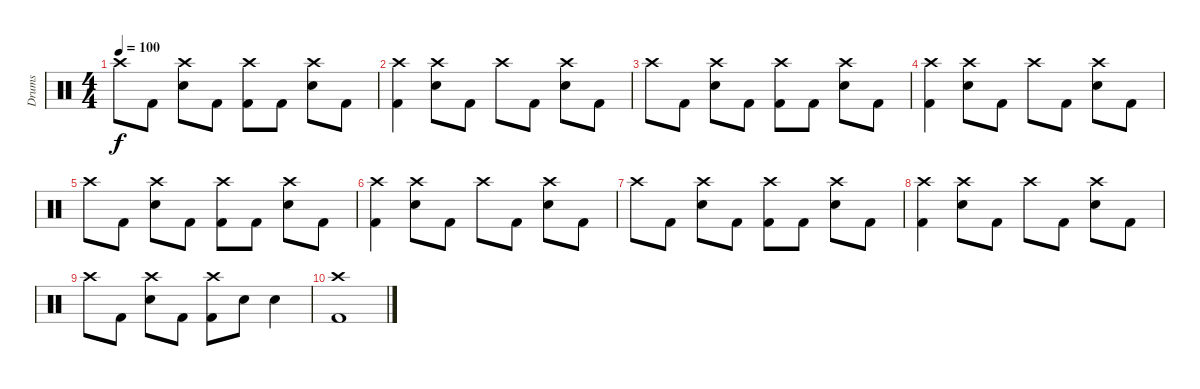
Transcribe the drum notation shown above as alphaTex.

\track ("Drums" "Drums") {instrument percussion}
\staff {score}
\articulation defaults
\ts (4 4)
\tempo 100
\clef neutral
\ks c "Crash high (hit)".8{dy f} "Kick (hit) 2".8
("Snare (hit) 2" "Crash high (hit)").8 "Kick (hit) 2".8 ("Kick (hit) 2" "Crash high (hit)").8 "Kick (hit) 2".8 ("Snare (hit) 2" "Crash high (hit)").8 "Kick (hit) 2".8 |
("Crash high (hit)" "Kick (hit) 2").4 ("Snare (hit) 2" "Crash high (hit)").8 "Kick (hit) 2".8 "Crash high (hit)".8 "Kick (hit) 2".8 ("Snare (hit) 2" "Crash high (hit)").8 "Kick (hit) 2".8 |
"Crash high (hit)".8 "Kick (hit) 2".8 ("Snare (hit) 2" "Crash high (hit)").8 "Kick (hit) 2".8 ("Crash high (hit)" "Kick (hit) 2").8 "Kick (hit) 2".8 ("Snare (hit) 2" "Crash high (hit)").8 "Kick (hit) 2".8 |
("Crash high (hit)" "Kick (hit) 2").4 ("Snare (hit) 2" "Crash high (hit)").8 "Kick (hit) 2".8 "Crash high (hit)".8 "Kick (hit) 2".8 ("Snare (hit) 2" "Crash high (hit)").8 "Kick (hit) 2".8 |
"Crash high (hit)".8 "Kick (hit) 2".8 ("Snare (hit) 2" "Crash high (hit)").8 "Kick (hit) 2".8 ("Kick (hit) 2" "Crash high (hit)").8 "Kick (hit) 2".8 ("Snare (hit) 2" "Crash high (hit)").8 "Kick (hit) 2".8 |
("Crash high (hit)" "Kick (hit) 2").4 ("Snare (hit) 2" "Crash high (hit)").8 "Kick (hit) 2".8 "Crash high (hit)".8 "Kick (hit) 2".8 ("Snare (hit) 2" "Crash high (hit)").8 "Kick (hit) 2".8 |
"Crash high (hit)".8 "Kick (hit) 2".8 ("Snare (hit) 2" "Crash high (hit)").8 "Kick (hit) 2".8 ("Crash high (hit)" "Kick (hit) 2").8 "Kick (hit) 2".8 ("Snare (hit) 2" "Crash high (hit)").8 "Kick (hit) 2".8 |
("Crash high (hit)" "Kick (hit) 2").4 ("Snare (hit) 2" "Crash high (hit)").8 "Kick (hit) 2".8 "Crash high (hit)".8 "Kick (hit) 2".8 ("Snare (hit) 2" "Crash high (hit)").8 "Kick (hit) 2".8 |
"Crash high (hit)".8 "Kick (hit) 2".8 ("Snare (hit) 2" "Crash high (hit)").8 "Kick (hit) 2".8 ("Kick (hit) 2" "Crash high (hit)").8 "Snare (hit) 2".8 "Snare (hit) 2".4 |
("Kick (hit) 2" "Crash high (hit)").1
